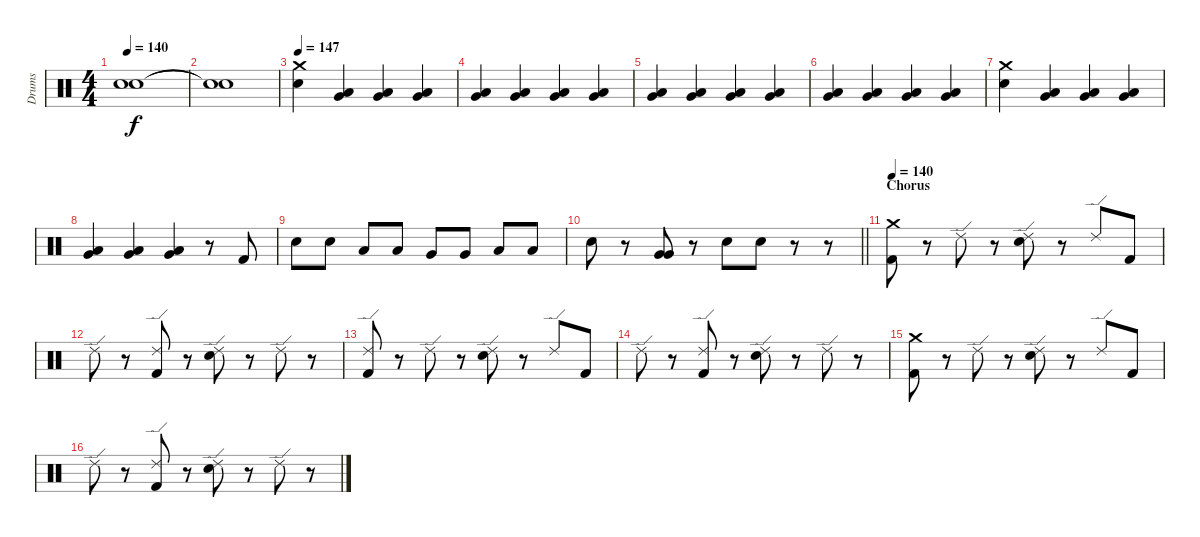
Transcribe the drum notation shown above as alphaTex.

\track ("Drums" "Drums") {instrument percussion}
\staff {score}
\articulation defaults
\ts (4 4)
\tempo 140
\clef neutral
\ks c
("Snare (hit)"{t} "Snare (hit)"{t}).1{dy f} |
("Snare (hit)"{t} "Snare (hit)"{t}).1 |
\tempo 147
("Crash medium (hit)" "Electric Snare (hit)").4 ("Low Tom (hit)" "Very Low Tom (hit)").4 ("Low Tom (hit)" "Very Low Tom (hit)").4 ("Low Tom (hit)" "Very Low Tom (hit)").4 |
("Low Tom (hit)" "Very Low Tom (hit)").4 ("Low Tom (hit)" "Very Low Tom (hit)").4 ("Low Tom (hit)" "Very Low Tom (hit)").4 ("Low Tom (hit)" "Very Low Tom (hit)").4 |
("Low Tom (hit)" "Very Low Tom (hit)").4 ("Low Tom (hit)" "Very Low Tom (hit)").4 ("Low Tom (hit)" "Very Low Tom (hit)").4 ("Low Tom (hit)" "Very Low Tom (hit)").4 |
("Low Tom (hit)" "Very Low Tom (hit)").4 ("Low Tom (hit)" "Very Low Tom (hit)").4 ("Low Tom (hit)" "Very Low Tom (hit)").4 ("Low Tom (hit)" "Very Low Tom (hit)").4 |
("Crash medium (hit)" "Electric Snare (hit)").4 ("Low Tom (hit)" "Very Low Tom (hit)").4 ("Low Tom (hit)" "Very Low Tom (hit)").4 ("Low Tom (hit)" "Very Low Tom (hit)").4 |
("Low Tom (hit)" "Very Low Tom (hit)").4 ("Low Tom (hit)" "Very Low Tom (hit)").4 ("Low Tom (hit)" "Very Low Tom (hit)").4 r.8 "Kick (hit) 2".8 |
"Electric Snare (hit)".8 "Electric Snare (hit)".8 "Low Tom (hit)".8 "Low Tom (hit)".8 "Very Low Tom (hit)".8 "Very Low Tom (hit)".8 "Low Floor Tom (hit)".8 "Low Floor Tom (hit)".8 |
\barLineRight lightlight "Electric Snare (hit)".8
r.8 ("Very Low Tom (hit)" "Very Low Tom (hit)").8 r.8 "Electric Snare (hit)".8 "Electric Snare (hit)".8 r.8 r.8 |
\section ("" "Chorus")
\tempo 140
("Crash medium (hit)" "Kick (hit) 2").8 r.8 "Ride (edge) 2".8 r.8 ("Ride (edge) 2" "Electric Snare (hit)").8 r.8 "Ride (edge) 2".8 "Kick (hit) 2".8 |
"Ride (edge) 2".8 r.8 ("Ride (edge) 2" "Kick (hit) 2").8 r.8 ("Ride (edge) 2" "Electric Snare (hit)").8 r.8 "Ride (edge) 2".8 r.8 |
("Ride (edge) 2" "Kick (hit) 2").8 r.8 "Ride (edge) 2".8 r.8 ("Ride (edge) 2" "Electric Snare (hit)").8 r.8 "Ride (edge) 2".8 "Kick (hit) 2".8 |
"Ride (edge) 2".8 r.8 ("Ride (edge) 2" "Kick (hit) 2").8 r.8 ("Ride (edge) 2" "Electric Snare (hit)").8 r.8 "Ride (edge) 2".8 r.8 |
("Crash medium (hit)" "Kick (hit) 2").8 r.8 "Ride (edge) 2".8 r.8 ("Ride (edge) 2" "Electric Snare (hit)").8 r.8 "Ride (edge) 2".8 "Kick (hit) 2".8 |
"Ride (edge) 2".8 r.8 ("Ride (edge) 2" "Kick (hit) 2").8 r.8 ("Ride (edge) 2" "Electric Snare (hit)").8 r.8 "Ride (edge) 2".8 r.8
